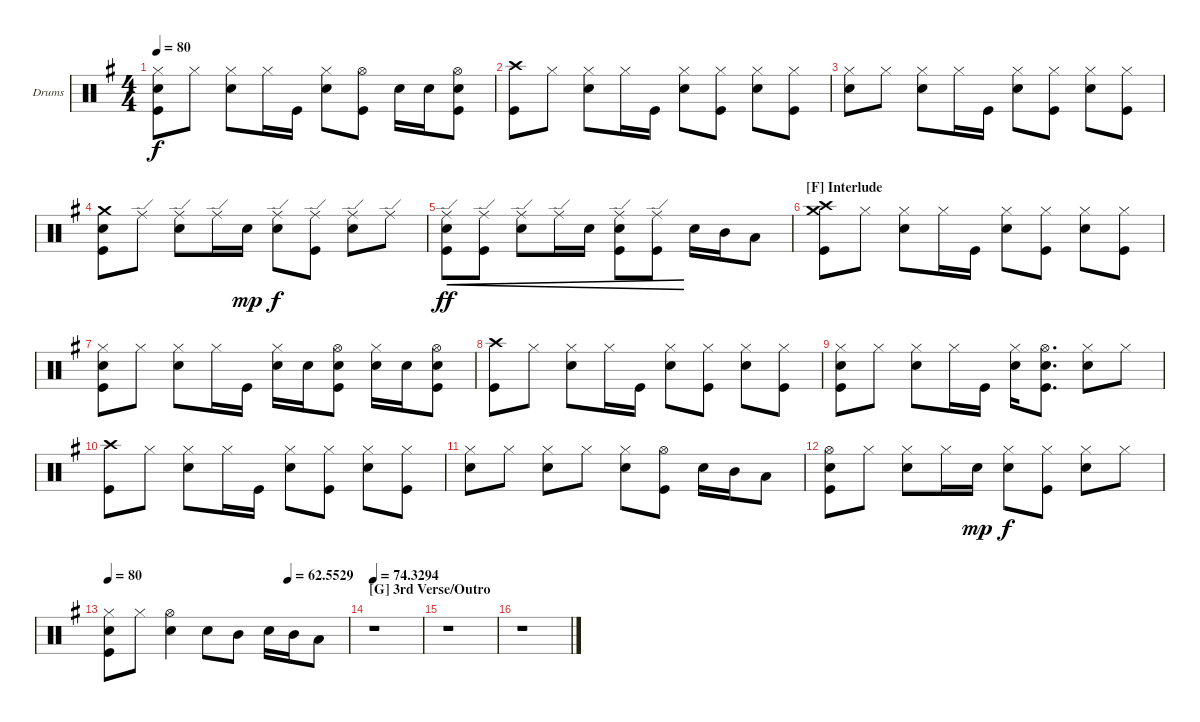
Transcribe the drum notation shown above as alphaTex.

\defaultSystemsLayout 4
\bracketExtendMode groupsimilarinstruments
\firstSystemTrackNameOrientation horizontal
\otherSystemsTrackNameOrientation horizontal
\chordDiagramsInScore
\track ("Dominic Boyce (Drums)" "Drums") {instrument percussion}
\staff {score}
\articulation defaults
\ts (4 4)
\tempo 80
\clef neutral
\ks g
("Snare (hit) 2" "Hi-Hat (closed)" "Kick (hit)").8{dy f} "Hi-Hat (closed)".8 ("Snare (hit) 2" "Hi-Hat (closed)").8 "Hi-Hat (closed)".16 "Kick (hit)".16 ("Snare (hit) 2" "Hi-Hat (closed)").8 ("Hi-Hat (open)" "Kick (hit)").8 "Snare (hit) 2".16 "Snare (hit) 2".16 ("Snare (hit) 2" "Hi-Hat (open)" "Kick (hit)").8 |
("Kick (hit)" "Crash high (hit)").8 "Hi-Hat (closed)".8 ("Snare (hit) 2" "Hi-Hat (closed)").8 "Hi-Hat (closed)".16 "Kick (hit)".16 ("Snare (hit) 2" "Hi-Hat (closed)").8 ("Hi-Hat (closed)" "Kick (hit)").8 ("Snare (hit) 2" "Hi-Hat (closed)").8 ("Hi-Hat (closed)" "Kick (hit)").8 |
("Snare (hit) 2" "Hi-Hat (closed)").8 "Hi-Hat (closed)".8 ("Snare (hit) 2" "Hi-Hat (closed)").8 "Hi-Hat (closed)".16 "Kick (hit)".16 ("Snare (hit) 2" "Hi-Hat (closed)").8 ("Hi-Hat (closed)" "Kick (hit)").8 ("Snare (hit) 2" "Hi-Hat (closed)").8 ("Hi-Hat (closed)" "Kick (hit)").8 |
("Kick (hit)" "Snare (hit) 2" "Crash medium (hit)").8 "Ride (edge)".8 ("Snare (hit) 2" "Ride (edge)").8 "Ride (edge)".16 "Snare (hit) 2".16{dy mp} ("Snare (hit) 2" "Ride (edge)").8{dy f} ("Kick (hit)" "Ride (edge)").8 ("Snare (hit) 2" "Ride (edge)").8 "Ride (edge)".8 |
("Kick (hit)" "Snare (hit) 2" "Ride (edge)").8{cre dy ff} ("Kick (hit)" "Ride (edge)").8{cre} ("Snare (hit) 2" "Ride (edge)").8{cre} "Ride (edge)".16{cre} "Snare (hit) 2".16{cre} ("Snare (hit) 2" "Kick (hit)" "Ride (edge)").8{cre} ("Kick (hit)" "Ride (edge)").8{cre} "Snare (hit) 2".16 "Mid Tom (hit)".16 "Low Tom (hit)".8 |
\section ("F" "Interlude")
("Kick (hit)" "Crash high (hit)" "Crash medium (hit)").8 "Hi-Hat (closed)".8 ("Snare (hit) 2" "Hi-Hat (closed)").8 "Hi-Hat (closed)".16 "Kick (hit)".16 ("Snare (hit) 2" "Hi-Hat (closed)").8 ("Hi-Hat (closed)" "Kick (hit)").8 ("Snare (hit) 2" "Hi-Hat (closed)").8 ("Hi-Hat (closed)" "Kick (hit)").8 |
("Snare (hit) 2" "Hi-Hat (closed)" "Kick (hit)").8 "Hi-Hat (closed)".8 ("Snare (hit) 2" "Hi-Hat (closed)").8 "Hi-Hat (closed)".16 "Kick (hit)".16 ("Snare (hit) 2" "Hi-Hat (closed)").16 "Snare (hit) 2".16 ("Hi-Hat (open)" "Kick (hit)" "Snare (hit) 2").8 ("Snare (hit) 2" "Hi-Hat (closed)").16 "Snare (hit) 2".16 ("Hi-Hat (open)" "Kick (hit)" "Snare (hit) 2").8 |
("Kick (hit)" "Crash high (hit)").8 "Hi-Hat (closed)".8 ("Snare (hit) 2" "Hi-Hat (closed)").8 "Hi-Hat (closed)".16 "Kick (hit)".16 ("Snare (hit) 2" "Hi-Hat (closed)").8 ("Hi-Hat (closed)" "Kick (hit)").8 ("Snare (hit) 2" "Hi-Hat (closed)").8 ("Hi-Hat (closed)" "Kick (hit)").8 |
("Snare (hit) 2" "Hi-Hat (closed)" "Kick (hit)").8 "Hi-Hat (closed)".8 ("Snare (hit) 2" "Hi-Hat (closed)").8 "Hi-Hat (closed)".16 "Kick (hit)".16 ("Snare (hit) 2" "Hi-Hat (closed)").16 ("Snare (hit) 2" "Hi-Hat (open)" "Kick (hit)").8{d} ("Snare (hit) 2" "Hi-Hat (closed)").8 "Hi-Hat (closed)".8 |
("Kick (hit)" "Crash high (hit)").8 "Hi-Hat (closed)".8 ("Snare (hit) 2" "Hi-Hat (closed)").8 "Hi-Hat (closed)".16 "Kick (hit)".16 ("Snare (hit) 2" "Hi-Hat (closed)").8 ("Hi-Hat (closed)" "Kick (hit)").8 ("Snare (hit) 2" "Hi-Hat (closed)").8 ("Hi-Hat (closed)" "Kick (hit)").8 |
("Snare (hit) 2" "Hi-Hat (closed)").8 "Hi-Hat (closed)".8 ("Snare (hit) 2" "Hi-Hat (closed)").8 "Hi-Hat (closed)".8 ("Snare (hit) 2" "Hi-Hat (closed)").8 ("Hi-Hat (open)" "Kick (hit)").8 "Snare (hit) 2".16 "Mid Tom (hit)".16 "Low Tom (hit)".8 |
("Kick (hit)" "Snare (hit) 2" "Hi-Hat (open)").8 "Hi-Hat (closed)".8 ("Snare (hit) 2" "Hi-Hat (closed)").8 "Hi-Hat (closed)".16 "Snare (hit) 2".16{dy mp} ("Snare (hit) 2" "Hi-Hat (closed)").8{dy f} ("Hi-Hat (closed)" "Kick (hit)").8 ("Snare (hit) 2" "Hi-Hat (closed)").8 "Hi-Hat (closed)".8 |
\tempo 80
\tempo (62.5529 0.75)
("Snare (hit) 2" "Hi-Hat (closed)" "Kick (hit)").8 "Hi-Hat (closed)".8 ("Snare (hit) 2" "Hi-Hat (open)").4 "Snare (hit) 2".8 "Mid Tom (hit)".8 "Snare (hit) 2".16 "Mid Tom (hit)".16 "Low Tom (hit)".8 |
\section ("G" "3rd Verse/Outro")
\tempo
74.3294 r.1 |
r.1 |
r.1
